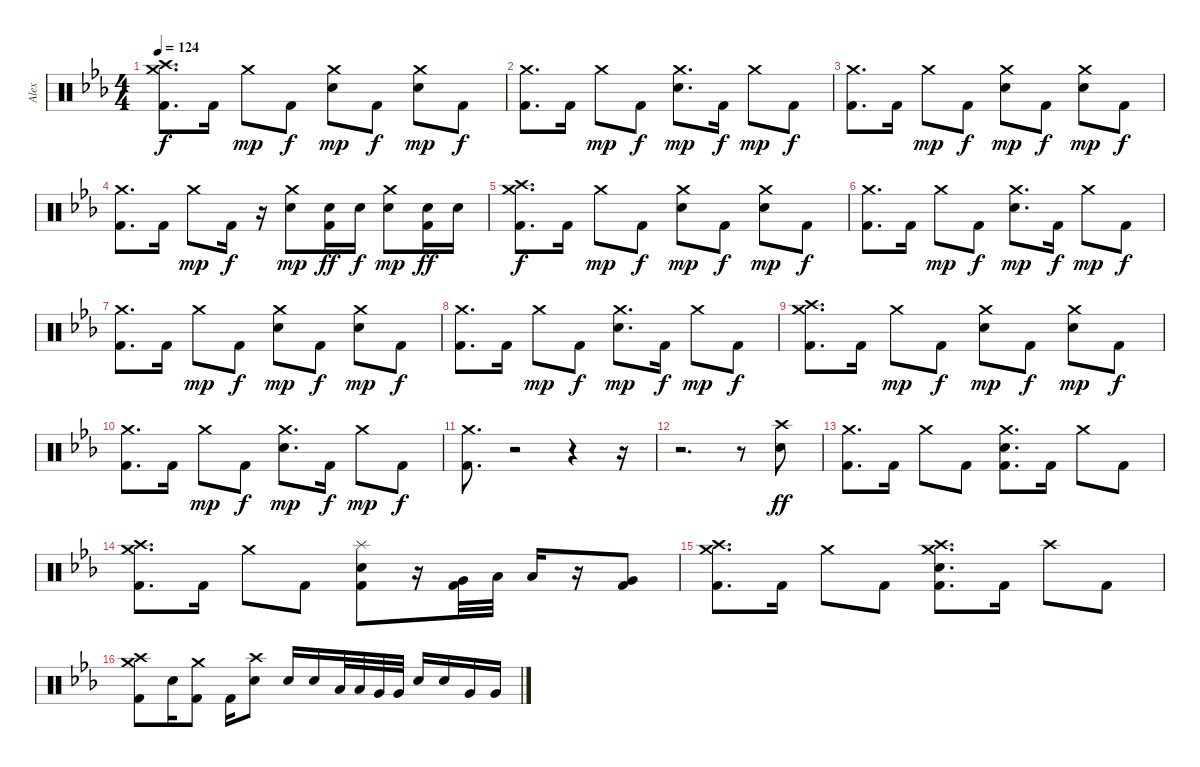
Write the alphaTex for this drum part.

\track ("Alex" "Alex") {instrument percussion}
\staff {score}
\articulation defaults
\ts (4 4)
\tempo 124
\clef neutral
\ks cminor
("Crash high (hit)" "Crash medium (hit)" "Kick (hit) 2").8{d dy f} "Kick (hit) 2".16 "Crash medium (hit)".8{dy mp} "Kick (hit) 2".8{dy f} ("Crash medium (hit)" "Electric Snare (hit)").8{dy mp} "Kick (hit) 2".8{dy f} ("Crash medium (hit)" "Electric Snare (hit)").8{dy mp} "Kick (hit) 2".8{dy f} |
("Crash medium (hit)" "Kick (hit) 2").8{d} "Kick (hit) 2".16 "Crash medium (hit)".8{dy mp} "Kick (hit) 2".8{dy f} ("Crash medium (hit)" "Electric Snare (hit)").8{d dy mp} "Kick (hit) 2".16{dy f} "Crash medium (hit)".8{dy mp} "Kick (hit) 2".8{dy f} |
("Crash medium (hit)" "Kick (hit) 2").8{d} "Kick (hit) 2".16 "Crash medium (hit)".8{dy mp} "Kick (hit) 2".8{dy f} ("Crash medium (hit)" "Electric Snare (hit)").8{dy mp} "Kick (hit) 2".8{dy f} ("Crash medium (hit)" "Electric Snare (hit)").8{dy mp} "Kick (hit) 2".8{dy f} |
("Crash medium (hit)" "Kick (hit) 2").8{d} "Kick (hit) 2".16 "Crash medium (hit)".8{dy mp} "Kick (hit) 2".16{dy f} r.16 ("Crash medium (hit)" "Electric Snare (hit)").8{dy mp} ("Electric Snare (hit)" "Kick (hit) 2").16{dy ff} "Electric Snare (hit)".16{dy f} ("Crash medium (hit)" "Electric Snare (hit)").8{dy mp} ("Electric Snare (hit)" "Kick (hit) 2").16{dy ff} "Electric Snare (hit)".16 |
("Crash high (hit)" "Crash medium (hit)" "Kick (hit) 2").8{d dy f} "Kick (hit) 2".16 "Crash medium (hit)".8{dy mp} "Kick (hit) 2".8{dy f} ("Crash medium (hit)" "Electric Snare (hit)").8{dy mp} "Kick (hit) 2".8{dy f} ("Crash medium (hit)" "Electric Snare (hit)").8{dy mp} "Kick (hit) 2".8{dy f} |
("Crash medium (hit)" "Kick (hit) 2").8{d} "Kick (hit) 2".16 "Crash medium (hit)".8{dy mp} "Kick (hit) 2".8{dy f} ("Crash medium (hit)" "Electric Snare (hit)").8{d dy mp} "Kick (hit) 2".16{dy f} "Crash medium (hit)".8{dy mp} "Kick (hit) 2".8{dy f} |
("Crash medium (hit)" "Kick (hit) 2").8{d} "Kick (hit) 2".16 "Crash medium (hit)".8{dy mp} "Kick (hit) 2".8{dy f} ("Crash medium (hit)" "Electric Snare (hit)").8{dy mp} "Kick (hit) 2".8{dy f} ("Crash medium (hit)" "Electric Snare (hit)").8{dy mp} "Kick (hit) 2".8{dy f} |
("Crash medium (hit)" "Kick (hit) 2").8{d} "Kick (hit) 2".16 "Crash medium (hit)".8{dy mp} "Kick (hit) 2".8{dy f} ("Crash medium (hit)" "Electric Snare (hit)").8{d dy mp} "Kick (hit) 2".16{dy f} "Crash medium (hit)".8{dy mp} "Kick (hit) 2".8{dy f} |
("Crash high (hit)" "Crash medium (hit)" "Kick (hit) 2").8{d} "Kick (hit) 2".16 "Crash medium (hit)".8{dy mp} "Kick (hit) 2".8{dy f} ("Crash medium (hit)" "Electric Snare (hit)").8{dy mp} "Kick (hit) 2".8{dy f} ("Crash medium (hit)" "Electric Snare (hit)").8{dy mp} "Kick (hit) 2".8{dy f} |
("Crash medium (hit)" "Kick (hit) 2").8{d} "Kick (hit) 2".16 "Crash medium (hit)".8{dy mp} "Kick (hit) 2".8{dy f} ("Crash medium (hit)" "Electric Snare (hit)").8{d dy mp} "Kick (hit) 2".16{dy f} "Crash medium (hit)".8{dy mp} "Kick (hit) 2".8{dy f} |
("Crash medium (hit)" "Kick (hit) 2").8{d} r.2 r.4 r.16 |
r.2{d} r.8 ("Crash high (hit)" "Electric Snare (hit)").8{dy ff} |
("Crash medium (hit)" "Kick (hit) 2").8{d} "Kick (hit) 2".16 "Crash medium (hit)".8 "Kick (hit) 2".8 ("Crash medium (hit)" "Electric Snare (hit)" "Kick (hit) 2").8{d} "Kick (hit) 2".16 "Crash medium (hit)".8 "Kick (hit) 2".8 |
("Crash medium (hit)" "Crash high (hit)" "Kick (hit) 2").8{d} "Kick (hit) 2".16 "Crash medium (hit)".8 "Kick (hit) 2".8 ("Splash (hit)" "Electric Snare (hit)" "Kick (hit) 2").8 r.16 ("Very Low Tom (hit)" "Kick (hit) 2").32 "Low Tom (hit)".32 "Low Tom (hit)".16 r.16 ("Very Low Tom (hit)" "Kick (hit) 2").8 |
("Crash medium (hit)" "Crash high (hit)" "Kick (hit) 2").8{d} "Kick (hit) 2".16 "Crash medium (hit)".8 "Kick (hit) 2".8 ("Crash medium (hit)" "Crash high (hit)" "Electric Snare (hit)" "Kick (hit) 2").8{d} "Kick (hit) 2".16 "Crash high (hit)".8 "Kick (hit) 2".8 |
("Crash medium (hit)" "Crash high (hit)" "Kick (hit) 2").8 "Electric Snare (hit)".16 ("Crash medium (hit)" "Kick (hit) 2").8 "Kick (hit) 2".16 ("Crash high (hit)" "Electric Snare (hit)").8 "Electric Snare (hit)".16 "Electric Snare (hit)".16 "Low Tom (hit)".32 "Low Tom (hit)".32 "Very Low Tom (hit)".32 "Very Low Tom (hit)".32 "Electric Snare (hit)".16 "Electric Snare (hit)".16 "Very Low Tom (hit)".16 "Very Low Tom (hit)".16
